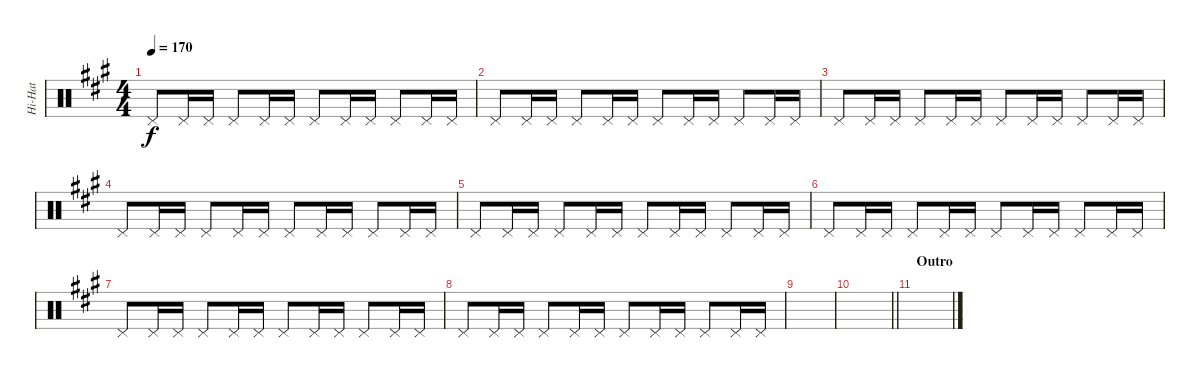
\track ("Hi-Hat" "Hi-Hat") {instrument percussion}
\staff {score}
\articulation defaults
\ts (4 4)
\tempo 170
\clef neutral
\ks a "Pedal Hi-Hat (hit)".8{dy f} "Pedal Hi-Hat (hit)".16 "Pedal Hi-Hat (hit)".16 "Pedal Hi-Hat (hit)".8 "Pedal Hi-Hat (hit)".16 "Pedal Hi-Hat (hit)".16 "Pedal Hi-Hat (hit)".8 "Pedal Hi-Hat (hit)".16 "Pedal Hi-Hat (hit)".16 "Pedal Hi-Hat (hit)".8 "Pedal Hi-Hat (hit)".16 "Pedal Hi-Hat (hit)".16
|
"Pedal Hi-Hat (hit)".8 "Pedal Hi-Hat (hit)".16 "Pedal Hi-Hat (hit)".16 "Pedal Hi-Hat (hit)".8 "Pedal Hi-Hat (hit)".16 "Pedal Hi-Hat (hit)".16 "Pedal Hi-Hat (hit)".8 "Pedal Hi-Hat (hit)".16 "Pedal Hi-Hat (hit)".16 "Pedal Hi-Hat (hit)".8 "Pedal Hi-Hat (hit)".16 "Pedal Hi-Hat (hit)".16 |
"Pedal Hi-Hat (hit)".8 "Pedal Hi-Hat (hit)".16 "Pedal Hi-Hat (hit)".16 "Pedal Hi-Hat (hit)".8 "Pedal Hi-Hat (hit)".16 "Pedal Hi-Hat (hit)".16 "Pedal Hi-Hat (hit)".8 "Pedal Hi-Hat (hit)".16 "Pedal Hi-Hat (hit)".16 "Pedal Hi-Hat (hit)".8 "Pedal Hi-Hat (hit)".16 "Pedal Hi-Hat (hit)".16 |
"Pedal Hi-Hat (hit)".8 "Pedal Hi-Hat (hit)".16 "Pedal Hi-Hat (hit)".16 "Pedal Hi-Hat (hit)".8 "Pedal Hi-Hat (hit)".16 "Pedal Hi-Hat (hit)".16 "Pedal Hi-Hat (hit)".8 "Pedal Hi-Hat (hit)".16 "Pedal Hi-Hat (hit)".16 "Pedal Hi-Hat (hit)".8 "Pedal Hi-Hat (hit)".16 "Pedal Hi-Hat (hit)".16 |
"Pedal Hi-Hat (hit)".8 "Pedal Hi-Hat (hit)".16 "Pedal Hi-Hat (hit)".16 "Pedal Hi-Hat (hit)".8 "Pedal Hi-Hat (hit)".16 "Pedal Hi-Hat (hit)".16 "Pedal Hi-Hat (hit)".8 "Pedal Hi-Hat (hit)".16 "Pedal Hi-Hat (hit)".16 "Pedal Hi-Hat (hit)".8 "Pedal Hi-Hat (hit)".16 "Pedal Hi-Hat (hit)".16 |
"Pedal Hi-Hat (hit)".8 "Pedal Hi-Hat (hit)".16 "Pedal Hi-Hat (hit)".16 "Pedal Hi-Hat (hit)".8 "Pedal Hi-Hat (hit)".16 "Pedal Hi-Hat (hit)".16 "Pedal Hi-Hat (hit)".8 "Pedal Hi-Hat (hit)".16 "Pedal Hi-Hat (hit)".16 "Pedal Hi-Hat (hit)".8 "Pedal Hi-Hat (hit)".16 "Pedal Hi-Hat (hit)".16 |
"Pedal Hi-Hat (hit)".8 "Pedal Hi-Hat (hit)".16 "Pedal Hi-Hat (hit)".16 "Pedal Hi-Hat (hit)".8 "Pedal Hi-Hat (hit)".16 "Pedal Hi-Hat (hit)".16 "Pedal Hi-Hat (hit)".8 "Pedal Hi-Hat (hit)".16 "Pedal Hi-Hat (hit)".16 "Pedal Hi-Hat (hit)".8 "Pedal Hi-Hat (hit)".16 "Pedal Hi-Hat (hit)".16 |
"Pedal Hi-Hat (hit)".8 "Pedal Hi-Hat (hit)".16 "Pedal Hi-Hat (hit)".16 "Pedal Hi-Hat (hit)".8 "Pedal Hi-Hat (hit)".16 "Pedal Hi-Hat (hit)".16 "Pedal Hi-Hat (hit)".8 "Pedal Hi-Hat (hit)".16 "Pedal Hi-Hat (hit)".16 "Pedal Hi-Hat (hit)".8 "Pedal Hi-Hat (hit)".16 "Pedal Hi-Hat (hit)".16 |
|
\barLineRight lightlight
|
\section ("" "Outro")
